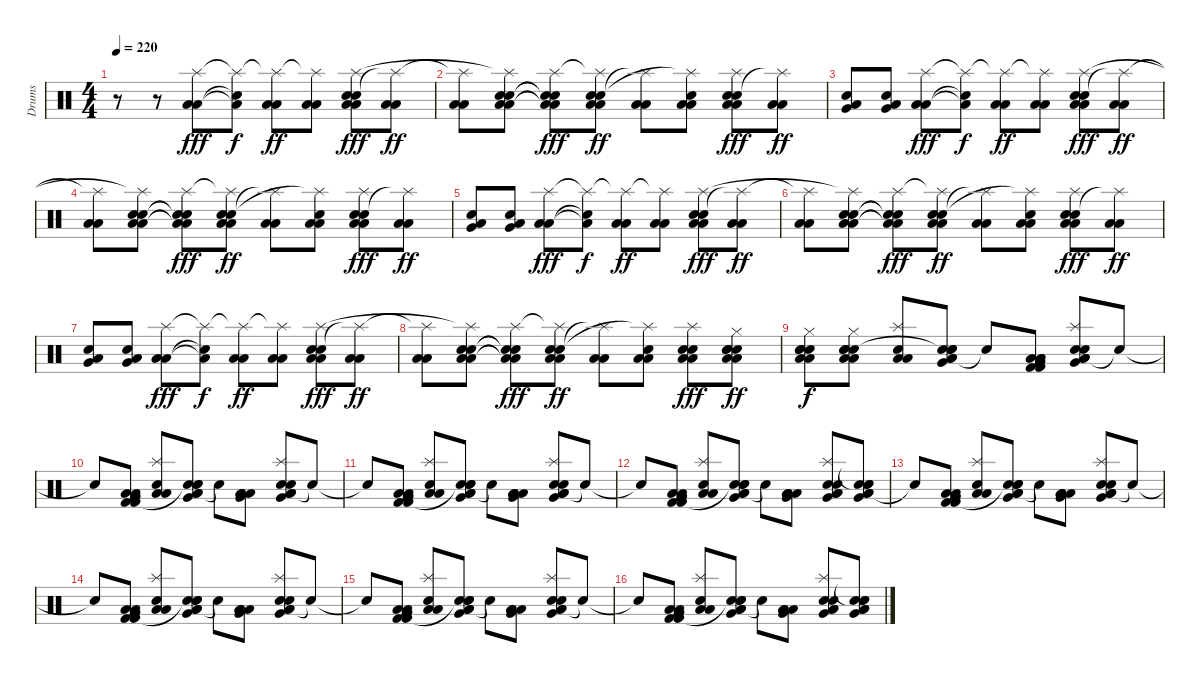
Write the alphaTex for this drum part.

\track ("Drums" "Drums") {instrument percussion}
\staff {score}
\articulation defaults
\ts (4 4)
\tempo 220
\clef neutral
\ks c
r.8{dy f} r.8 ("Low Floor Tom (hit)" "Low Floor Tom (hit)" "Splash (hit)").8{dy fff} ("Low Floor Tom (hit)"{t} "Snare (hit)"{t} "Splash (hit)"{t}).8{dy f} ("Low Floor Tom (hit)" "Low Floor Tom (hit)" "Splash (hit)"{t}).8{dy ff} ("Low Floor Tom (hit)" "Low Floor Tom (hit)" "Splash (hit)"{t}).8 ("Low Floor Tom (hit)" "Low Floor Tom (hit)" "Electric Snare (hit)" "Snare (hit) 2" "Splash (hit)").8{dy fff} ("Low Floor Tom (hit)" "Low Floor Tom (hit)" "Splash (hit)"{t}).8{dy ff} |
("Low Floor Tom (hit)" "Low Floor Tom (hit)" "Splash (hit)"{t}).8 ("Low Floor Tom (hit)" "Low Floor Tom (hit)" "Electric Snare (hit)" "Snare (hit) 2" "Splash (hit)"{t}).8 ("Low Floor Tom (hit)"{t} "Low Floor Tom (hit)"{t} "Electric Snare (hit)"{t} "Snare (hit) 2"{t} "Splash (hit)").8{dy fff} ("Low Floor Tom (hit)" "Low Floor Tom (hit)" "Electric Snare (hit)" "Snare (hit) 2" "Splash (hit)"{t}).8{dy ff} ("Low Floor Tom (hit)" "Low Floor Tom (hit)" "Splash (hit)"{t}).8 ("Low Floor Tom (hit)" "Low Floor Tom (hit)" "Electric Snare (hit)" "Splash (hit)"{t}).8 ("Low Floor Tom (hit)" "Low Floor Tom (hit)" "Electric Snare (hit)" "Snare (hit) 2" "Splash (hit)").8{dy fff} ("Low Floor Tom (hit)" "Low Floor Tom (hit)" "Splash (hit)"{t}).8{dy ff} |
("Very Low Tom (hit)" "Electric Snare (hit)" "Low Floor Tom (hit)").8 ("Very Low Tom (hit)" "Electric Snare (hit)" "Low Floor Tom (hit)").8 ("Low Floor Tom (hit)" "Low Floor Tom (hit)" "Splash (hit)").8{dy fff} ("Low Floor Tom (hit)"{t} "Snare (hit)"{t} "Splash (hit)"{t}).8{dy f} ("Low Floor Tom (hit)" "Low Floor Tom (hit)" "Splash (hit)"{t}).8{dy ff} ("Low Floor Tom (hit)" "Low Floor Tom (hit)" "Splash (hit)"{t}).8 ("Low Floor Tom (hit)" "Low Floor Tom (hit)" "Electric Snare (hit)" "Snare (hit) 2" "Splash (hit)").8{dy fff} ("Low Floor Tom (hit)" "Low Floor Tom (hit)" "Splash (hit)"{t}).8{dy ff} |
("Low Floor Tom (hit)" "Low Floor Tom (hit)" "Splash (hit)"{t}).8 ("Low Floor Tom (hit)" "Low Floor Tom (hit)" "Electric Snare (hit)" "Snare (hit) 2" "Splash (hit)"{t}).8 ("Low Floor Tom (hit)"{t} "Low Floor Tom (hit)"{t} "Electric Snare (hit)"{t} "Snare (hit) 2"{t} "Splash (hit)").8{dy fff} ("Low Floor Tom (hit)" "Low Floor Tom (hit)" "Electric Snare (hit)" "Snare (hit) 2" "Splash (hit)"{t}).8{dy ff} ("Low Floor Tom (hit)" "Low Floor Tom (hit)" "Splash (hit)"{t}).8 ("Low Floor Tom (hit)" "Low Floor Tom (hit)" "Electric Snare (hit)" "Splash (hit)"{t}).8 ("Low Floor Tom (hit)" "Low Floor Tom (hit)" "Electric Snare (hit)" "Snare (hit) 2" "Splash (hit)").8{dy fff} ("Low Floor Tom (hit)" "Low Floor Tom (hit)" "Splash (hit)"{t}).8{dy ff} |
("Very Low Tom (hit)" "Electric Snare (hit)" "Low Floor Tom (hit)").8 ("Very Low Tom (hit)" "Electric Snare (hit)" "Low Floor Tom (hit)").8 ("Low Floor Tom (hit)" "Low Floor Tom (hit)" "Splash (hit)").8{dy fff} ("Low Floor Tom (hit)"{t} "Snare (hit)"{t} "Splash (hit)"{t}).8{dy f} ("Low Floor Tom (hit)" "Low Floor Tom (hit)" "Splash (hit)"{t}).8{dy ff} ("Low Floor Tom (hit)" "Low Floor Tom (hit)" "Splash (hit)"{t}).8 ("Low Floor Tom (hit)" "Low Floor Tom (hit)" "Electric Snare (hit)" "Snare (hit) 2" "Splash (hit)").8{dy fff} ("Low Floor Tom (hit)" "Low Floor Tom (hit)" "Splash (hit)"{t}).8{dy ff} |
("Low Floor Tom (hit)" "Low Floor Tom (hit)" "Splash (hit)"{t}).8 ("Low Floor Tom (hit)" "Low Floor Tom (hit)" "Electric Snare (hit)" "Snare (hit) 2" "Splash (hit)"{t}).8 ("Low Floor Tom (hit)"{t} "Low Floor Tom (hit)"{t} "Electric Snare (hit)"{t} "Snare (hit) 2"{t} "Splash (hit)").8{dy fff} ("Low Floor Tom (hit)" "Low Floor Tom (hit)" "Electric Snare (hit)" "Snare (hit) 2" "Splash (hit)"{t}).8{dy ff} ("Low Floor Tom (hit)" "Low Floor Tom (hit)" "Splash (hit)"{t}).8 ("Low Floor Tom (hit)" "Low Floor Tom (hit)" "Electric Snare (hit)" "Splash (hit)"{t}).8 ("Low Floor Tom (hit)" "Low Floor Tom (hit)" "Electric Snare (hit)" "Snare (hit) 2" "Splash (hit)").8{dy fff} ("Low Floor Tom (hit)" "Low Floor Tom (hit)" "Splash (hit)"{t}).8{dy ff} |
("Very Low Tom (hit)" "Electric Snare (hit)" "Low Floor Tom (hit)").8 ("Very Low Tom (hit)" "Electric Snare (hit)" "Low Floor Tom (hit)").8 ("Low Floor Tom (hit)" "Low Floor Tom (hit)" "Splash (hit)").8{dy fff} ("Low Floor Tom (hit)"{t} "Snare (hit)"{t} "Splash (hit)"{t}).8{dy f} ("Low Floor Tom (hit)" "Low Floor Tom (hit)" "Splash (hit)"{t}).8{dy ff} ("Low Floor Tom (hit)" "Low Floor Tom (hit)" "Splash (hit)"{t}).8 ("Low Floor Tom (hit)" "Low Floor Tom (hit)" "Electric Snare (hit)" "Snare (hit) 2" "Splash (hit)").8{dy fff} ("Low Floor Tom (hit)" "Low Floor Tom (hit)" "Splash (hit)"{t}).8{dy ff} |
("Low Floor Tom (hit)" "Low Floor Tom (hit)" "Splash (hit)"{t}).8 ("Low Floor Tom (hit)" "Low Floor Tom (hit)" "Electric Snare (hit)" "Snare (hit) 2" "Splash (hit)"{t}).8 ("Low Floor Tom (hit)"{t} "Low Floor Tom (hit)"{t} "Electric Snare (hit)"{t} "Snare (hit) 2"{t} "Splash (hit)").8{dy fff} ("Low Floor Tom (hit)" "Low Floor Tom (hit)" "Electric Snare (hit)" "Snare (hit) 2" "Splash (hit)"{t}).8{dy ff} ("Low Floor Tom (hit)" "Low Floor Tom (hit)" "Splash (hit)"{t}).8 ("Low Floor Tom (hit)" "Low Floor Tom (hit)" "Electric Snare (hit)" "Splash (hit)"{t}).8 ("Low Floor Tom (hit)" "Low Floor Tom (hit)" "Electric Snare (hit)" "Snare (hit) 2" "Splash (hit)").8{dy fff} ("Low Floor Tom (hit)" "Low Floor Tom (hit)" "Electric Snare (hit)" "Snare (hit) 2" "Electric Snare (hit)" "Hi-Hat (closed)").8{dy ff} |
("Low Floor Tom (hit)" "Low Floor Tom (hit)" "Electric Snare (hit)" "Snare (hit) 2" "Electric Snare (hit)" "Hi-Hat (closed)").8{dy f} ("Low Floor Tom (hit)" "Low Floor Tom (hit)" "Electric Snare (hit)" "Snare (hit) 2" "Electric Snare (hit)" "Hi-Hat (closed)").8 ("Low Floor Tom (hit)" "Low Floor Tom (hit)" "Electric Snare (hit)" "Splash (hit)").8 ("Low Floor Tom (hit)" "Low Floor Tom (hit)" "Electric Snare (hit)" "Snare (hit) 2" "Snare (hit)"{t} "Very Low Tom (hit)").8 "Snare (hit)"{t}.8 ("Low Floor Tom (hit)" "Low Floor Tom (hit)" "Low Tom (hit)" "Kick (hit) 2" "Kick (hit) 2" "Very Low Tom (hit)").8 ("Low Floor Tom (hit)" "Low Floor Tom (hit)" "Electric Snare (hit)" "Snare (hit) 2" "Splash (hit)" "Very Low Tom (hit)").8 "Snare (hit)"{t}.8 |
"Snare (hit)"{t}.8 ("Low Floor Tom (hit)" "Very Low Tom (hit)" "Low Tom (hit)" "Kick (hit) 2" "Kick (hit) 2" "Very Low Tom (hit)").8 ("Low Floor Tom (hit)" "Low Floor Tom (hit)" "Electric Snare (hit)" "Splash (hit)").8 ("Low Floor Tom (hit)" "Low Floor Tom (hit)" "Electric Snare (hit)" "Snare (hit) 2" "Snare (hit)"{t} "Very Low Tom (hit)").8 "Snare (hit)"{t}.8 ("Low Floor Tom (hit)" "Low Floor Tom (hit)" "Low Tom (hit)" "Very Low Tom (hit)").8 ("Low Floor Tom (hit)" "Low Floor Tom (hit)" "Electric Snare (hit)" "Snare (hit) 2" "Splash (hit)" "Very Low Tom (hit)").8 "Snare (hit)"{t}.8 |
"Snare (hit)"{t}.8 ("Low Floor Tom (hit)" "Very Low Tom (hit)" "Low Tom (hit)" "Kick (hit) 2" "Kick (hit) 2" "Very Low Tom (hit)").8 ("Low Floor Tom (hit)" "Low Floor Tom (hit)" "Electric Snare (hit)" "Splash (hit)").8 ("Low Floor Tom (hit)" "Low Floor Tom (hit)" "Electric Snare (hit)" "Snare (hit) 2" "Snare (hit)"{t} "Very Low Tom (hit)").8 "Snare (hit)"{t}.8 ("Low Floor Tom (hit)" "Low Floor Tom (hit)" "Low Tom (hit)" "Very Low Tom (hit)").8 ("Low Floor Tom (hit)" "Low Floor Tom (hit)" "Electric Snare (hit)" "Snare (hit) 2" "Splash (hit)" "Very Low Tom (hit)").8 "Snare (hit)"{t}.8 |
"Snare (hit)"{t}.8 ("Low Floor Tom (hit)" "Very Low Tom (hit)" "Low Tom (hit)" "Kick (hit) 2" "Kick (hit) 2" "Very Low Tom (hit)").8 ("Low Floor Tom (hit)" "Low Floor Tom (hit)" "Electric Snare (hit)" "Splash (hit)").8 ("Low Floor Tom (hit)" "Low Floor Tom (hit)" "Electric Snare (hit)" "Snare (hit) 2" "Snare (hit)"{t} "Very Low Tom (hit)").8 "Snare (hit)"{t}.8 ("Low Floor Tom (hit)" "Low Floor Tom (hit)" "Low Tom (hit)" "Very Low Tom (hit)").8 ("Low Floor Tom (hit)" "Low Floor Tom (hit)" "Electric Snare (hit)" "Snare (hit) 2" "Splash (hit)" "Very Low Tom (hit)").8 ("Low Floor Tom (hit)" "Low Floor Tom (hit)" "Electric Snare (hit)" "Snare (hit) 2" "Snare (hit)"{t} "Very Low Tom (hit)").8 |
"Snare (hit)"{t}.8 ("Low Floor Tom (hit)" "Very Low Tom (hit)" "Low Tom (hit)" "Kick (hit) 2" "Kick (hit) 2" "Very Low Tom (hit)").8 ("Low Floor Tom (hit)" "Low Floor Tom (hit)" "Electric Snare (hit)" "Splash (hit)").8 ("Low Floor Tom (hit)" "Low Floor Tom (hit)" "Electric Snare (hit)" "Snare (hit) 2" "Snare (hit)"{t} "Very Low Tom (hit)").8 "Snare (hit)"{t}.8 ("Low Floor Tom (hit)" "Low Floor Tom (hit)" "Low Tom (hit)" "Very Low Tom (hit)").8 ("Low Floor Tom (hit)" "Low Floor Tom (hit)" "Electric Snare (hit)" "Snare (hit) 2" "Splash (hit)" "Very Low Tom (hit)").8 "Snare (hit)"{t}.8 |
"Snare (hit)"{t}.8 ("Low Floor Tom (hit)" "Very Low Tom (hit)" "Low Tom (hit)" "Kick (hit) 2" "Kick (hit) 2" "Very Low Tom (hit)").8 ("Low Floor Tom (hit)" "Low Floor Tom (hit)" "Electric Snare (hit)" "Splash (hit)").8 ("Low Floor Tom (hit)" "Low Floor Tom (hit)" "Electric Snare (hit)" "Snare (hit) 2" "Snare (hit)"{t} "Very Low Tom (hit)").8 "Snare (hit)"{t}.8 ("Low Floor Tom (hit)" "Low Floor Tom (hit)" "Low Tom (hit)" "Very Low Tom (hit)").8 ("Low Floor Tom (hit)" "Low Floor Tom (hit)" "Electric Snare (hit)" "Snare (hit) 2" "Splash (hit)" "Very Low Tom (hit)").8 "Snare (hit)"{t}.8 |
"Snare (hit)"{t}.8 ("Low Floor Tom (hit)" "Very Low Tom (hit)" "Low Tom (hit)" "Kick (hit) 2" "Kick (hit) 2" "Very Low Tom (hit)").8 ("Low Floor Tom (hit)" "Low Floor Tom (hit)" "Electric Snare (hit)" "Splash (hit)").8 ("Low Floor Tom (hit)" "Low Floor Tom (hit)" "Electric Snare (hit)" "Snare (hit) 2" "Snare (hit)"{t} "Very Low Tom (hit)").8 "Snare (hit)"{t}.8 ("Low Floor Tom (hit)" "Low Floor Tom (hit)" "Low Tom (hit)" "Very Low Tom (hit)").8 ("Low Floor Tom (hit)" "Low Floor Tom (hit)" "Electric Snare (hit)" "Snare (hit) 2" "Splash (hit)" "Very Low Tom (hit)").8 "Snare (hit)"{t}.8 |
"Snare (hit)"{t}.8 ("Low Floor Tom (hit)" "Very Low Tom (hit)" "Low Tom (hit)" "Kick (hit) 2" "Kick (hit) 2" "Very Low Tom (hit)").8 ("Low Floor Tom (hit)" "Low Floor Tom (hit)" "Electric Snare (hit)" "Splash (hit)").8 ("Low Floor Tom (hit)" "Low Floor Tom (hit)" "Electric Snare (hit)" "Snare (hit) 2" "Snare (hit)"{t} "Very Low Tom (hit)").8 "Snare (hit)"{t}.8 ("Low Floor Tom (hit)" "Low Floor Tom (hit)" "Low Tom (hit)" "Very Low Tom (hit)").8 ("Low Floor Tom (hit)" "Low Floor Tom (hit)" "Electric Snare (hit)" "Snare (hit) 2" "Splash (hit)" "Very Low Tom (hit)").8 ("Low Floor Tom (hit)" "Low Floor Tom (hit)" "Electric Snare (hit)" "Snare (hit) 2" "Snare (hit)"{t} "Very Low Tom (hit)").8
